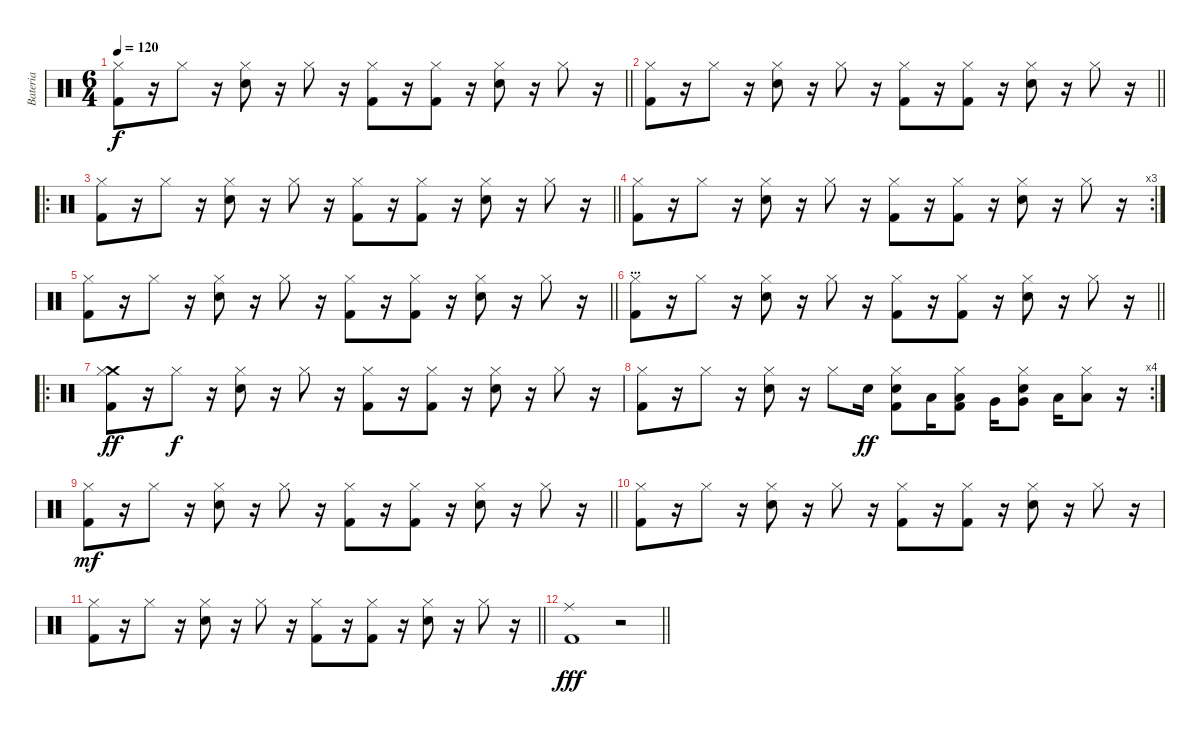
\track ("Bateria" "Bateria") {instrument percussion}
\staff {score}
\articulation defaults
\ts (6 4)
\tempo 120
\clef neutral
\barLineRight lightlight
\ks c
("Hi-Hat (closed)" "Kick (hit) 2").8{dy f} r.16 "Hi-Hat (closed)".8 r.16 ("Hi-Hat (closed)" "Snare (hit) 2").8 r.16 "Hi-Hat (closed)".8 r.16 ("Hi-Hat (closed)" "Kick (hit) 2").8 r.16 ("Hi-Hat (closed)" "Kick (hit) 2").8 r.16 ("Hi-Hat (closed)" "Snare (hit) 2").8 r.16 "Hi-Hat (closed)".8 r.16 |
\barLineRight lightlight
("Hi-Hat (closed)" "Kick (hit) 2").8 r.16 "Hi-Hat (closed)".8 r.16 ("Hi-Hat (closed)" "Snare (hit) 2").8 r.16 "Hi-Hat (closed)".8 r.16 ("Hi-Hat (closed)" "Kick (hit) 2").8 r.16 ("Hi-Hat (closed)" "Kick (hit) 2").8 r.16 ("Hi-Hat (closed)" "Snare (hit) 2").8 r.16 "Hi-Hat (closed)".8 r.16 |
\ro
\barLineRight lightlight
("Hi-Hat (closed)" "Kick (hit) 2").8 r.16 "Hi-Hat (closed)".8 r.16 ("Hi-Hat (closed)" "Snare (hit) 2").8 r.16 "Hi-Hat (closed)".8 r.16 ("Hi-Hat (closed)" "Kick (hit) 2").8 r.16 ("Hi-Hat (closed)" "Kick (hit) 2").8 r.16 ("Hi-Hat (closed)" "Snare (hit) 2").8 r.16 "Hi-Hat (closed)".8 r.16 |
\rc 3
("Hi-Hat (closed)" "Kick (hit) 2").8 r.16 "Hi-Hat (closed)".8 r.16 ("Hi-Hat (closed)" "Snare (hit) 2").8 r.16 "Hi-Hat (closed)".8 r.16 ("Hi-Hat (closed)" "Kick (hit) 2").8 r.16 ("Hi-Hat (closed)" "Kick (hit) 2").8 r.16 ("Hi-Hat (closed)" "Snare (hit) 2").8 r.16 "Hi-Hat (closed)".8 r.16 |
\barLineRight lightlight
("Hi-Hat (closed)" "Kick (hit) 2").8 r.16 "Hi-Hat (closed)".8 r.16 ("Hi-Hat (closed)" "Snare (hit) 2").8 r.16 "Hi-Hat (closed)".8 r.16 ("Hi-Hat (closed)" "Kick (hit) 2").8 r.16 ("Hi-Hat (closed)" "Kick (hit) 2").8 r.16 ("Hi-Hat (closed)" "Snare (hit) 2").8 r.16 "Hi-Hat (closed)".8 r.16 |
\section ("" "...")
\barLineRight lightlight
("Hi-Hat (closed)" "Kick (hit) 2").8 r.16 "Hi-Hat (closed)".8 r.16 ("Hi-Hat (closed)" "Snare (hit) 2").8 r.16 "Hi-Hat (closed)".8 r.16 ("Hi-Hat (closed)" "Kick (hit) 2").8 r.16 ("Hi-Hat (closed)" "Kick (hit) 2").8 r.16 ("Hi-Hat (closed)" "Snare (hit) 2").8 r.16 "Hi-Hat (closed)".8 r.16 |
\ro
("Crash medium (hit)" "Hi-Hat (closed)" "Kick (hit) 2").8{dy ff} r.16 "Hi-Hat (closed)".8{dy f} r.16 ("Hi-Hat (closed)" "Snare (hit) 2").8 r.16 "Hi-Hat (closed)".8 r.16 ("Hi-Hat (closed)" "Kick (hit) 2").8 r.16 ("Hi-Hat (closed)" "Kick (hit) 2").8 r.16 ("Hi-Hat (closed)" "Snare (hit) 2").8 r.16 "Hi-Hat (closed)".8 r.16 |
\rc 4
("Hi-Hat (closed)" "Kick (hit) 2").8 r.16 "Hi-Hat (closed)".8 r.16 ("Hi-Hat (closed)" "Snare (hit) 2").8 r.16 "Hi-Hat (closed)".8 "Snare (hit) 2".16{dy ff} ("Hi-Hat (closed)" "Snare (hit) 2" "Kick (hit) 2").8 "Low Tom (hit)".16 ("Hi-Hat (closed)" "Low Tom (hit)" "Kick (hit) 2").8 "Very Low Tom (hit)".16 ("Hi-Hat (closed)" "Very Low Tom (hit)" "Snare (hit) 2").8 "Low Floor Tom (hit)".16 ("Hi-Hat (closed)" "Low Floor Tom (hit)").8 r.16 |
\barLineRight lightlight
("Hi-Hat (closed)" "Kick (hit) 2").8{dy mf} r.16 "Hi-Hat (closed)".8 r.16 ("Hi-Hat (closed)" "Snare (hit) 2").8 r.16 "Hi-Hat (closed)".8 r.16 ("Hi-Hat (closed)" "Kick (hit) 2").8 r.16 ("Hi-Hat (closed)" "Kick (hit) 2").8 r.16 ("Hi-Hat (closed)" "Snare (hit) 2").8 r.16 "Hi-Hat (closed)".8 r.16 |
("Hi-Hat (closed)" "Kick (hit) 2").8 r.16 "Hi-Hat (closed)".8 r.16 ("Hi-Hat (closed)" "Snare (hit) 2").8 r.16 "Hi-Hat (closed)".8 r.16 ("Hi-Hat (closed)" "Kick (hit) 2").8 r.16 ("Hi-Hat (closed)" "Kick (hit) 2").8 r.16 ("Hi-Hat (closed)" "Snare (hit) 2").8 r.16 "Hi-Hat (closed)".8 r.16 |
\barLineRight lightlight
("Hi-Hat (closed)" "Kick (hit) 2").8 r.16 "Hi-Hat (closed)".8 r.16 ("Hi-Hat (closed)" "Snare (hit) 2").8 r.16 "Hi-Hat (closed)".8 r.16 ("Hi-Hat (closed)" "Kick (hit) 2").8 r.16 ("Hi-Hat (closed)" "Kick (hit) 2").8 r.16 ("Hi-Hat (closed)" "Snare (hit) 2").8 r.16 "Hi-Hat (closed)".8 r.16 |
\barLineRight lightlight
("Ride (middle)" "Kick (hit) 2").1{dy fff} r.2
